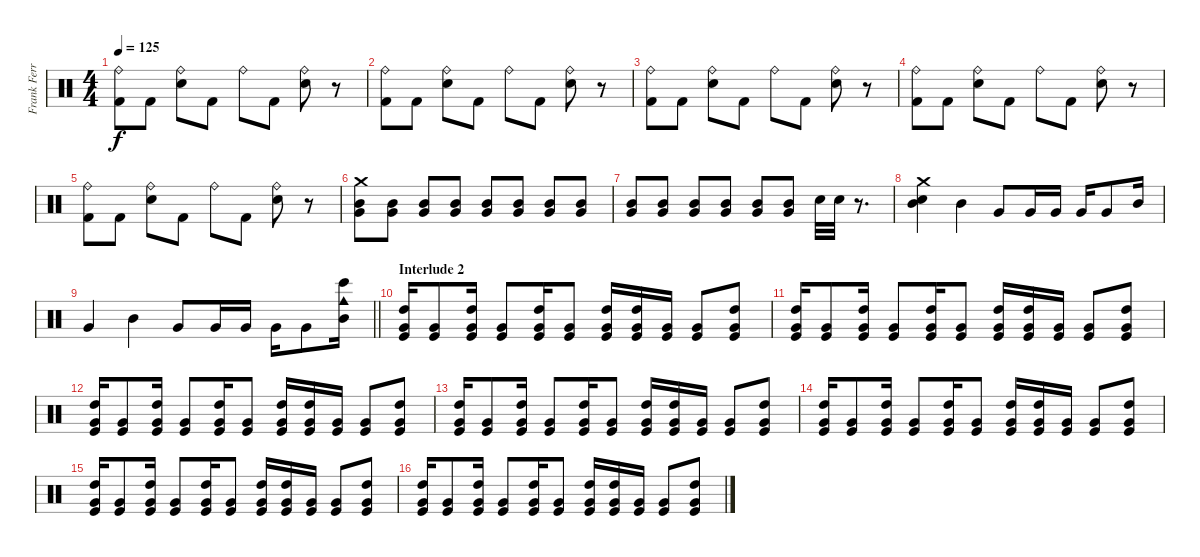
\track ("Frank Ferrer" "Frank Ferr") {instrument percussion}
\staff {score}
\articulation defaults
\ts (4 4)
\tempo 125
\clef neutral
\ks c
("Kick (hit) 2" "Ride (bell)").8{dy f} "Kick (hit) 2".8 ("Electric Snare (hit)" "Ride (bell)").8 "Kick (hit) 2".8 "Ride (bell)".8 "Kick (hit) 2".8 ("Electric Snare (hit)" "Ride (bell)").8 r.8 |
("Kick (hit) 2" "Ride (bell)").8 "Kick (hit) 2".8 ("Electric Snare (hit)" "Ride (bell)").8 "Kick (hit) 2".8 "Ride (bell)".8 "Kick (hit) 2".8 ("Electric Snare (hit)" "Ride (bell)").8 r.8 |
("Kick (hit) 2" "Ride (bell)").8 "Kick (hit) 2".8 ("Electric Snare (hit)" "Ride (bell)").8 "Kick (hit) 2".8 "Ride (bell)".8 "Kick (hit) 2".8 ("Electric Snare (hit)" "Ride (bell)").8 r.8 |
("Kick (hit) 2" "Ride (bell)").8 "Kick (hit) 2".8 ("Electric Snare (hit)" "Ride (bell)").8 "Kick (hit) 2".8 "Ride (bell)".8 "Kick (hit) 2".8 ("Electric Snare (hit)" "Ride (bell)").8 r.8 |
("Kick (hit) 2" "Ride (bell)").8 "Kick (hit) 2".8 ("Electric Snare (hit)" "Ride (bell)").8 "Kick (hit) 2".8 "Ride (bell)".8 "Kick (hit) 2".8 ("Electric Snare (hit)" "Ride (bell)").8 r.8 |
("Crash medium (hit)" "Very Low Tom (hit)" "Mid Tom (hit)").8 ("Very Low Tom (hit)" "Mid Tom (hit)").8 ("Very Low Tom (hit)" "Mid Tom (hit)").8 ("Very Low Tom (hit)" "Mid Tom (hit)").8 ("Very Low Tom (hit)" "Mid Tom (hit)").8 ("Very Low Tom (hit)" "Mid Tom (hit)").8 ("Very Low Tom (hit)" "Mid Tom (hit)").8 ("Very Low Tom (hit)" "Mid Tom (hit)").8 |
("Very Low Tom (hit)" "Mid Tom (hit)").8 ("Very Low Tom (hit)" "Mid Tom (hit)").8 ("Very Low Tom (hit)" "Mid Tom (hit)").8 ("Very Low Tom (hit)" "Mid Tom (hit)").8 ("Very Low Tom (hit)" "Mid Tom (hit)").8 ("Very Low Tom (hit)" "Mid Tom (hit)").8 "Electric Snare (hit)".32 "Electric Snare (hit)".32 r.8{d} |
("Crash medium (hit)" "Electric Snare (hit)" "Mid Tom (hit)").4 "Mid Tom (hit)".4 "Very Low Tom (hit)".8 "Very Low Tom (hit)".16 "Very Low Tom (hit)".16 "Very Low Tom (hit)".16 "Very Low Tom (hit)".8 "Mid Tom (hit)".16 |
\barLineRight lightlight "Very Low Tom (hit)".4 "Mid Tom (hit)".4 "Very Low Tom (hit)".8 "Very Low Tom (hit)".16 "Very Low Tom (hit)".16 "Very Low Tom (hit)".16 "Very Low Tom (hit)".8
("Cowbell medium (hit)" "Bongo High (hit)" "Mid Tom (hit)").16 |
\section ("" "Interlude 2")
("Kick (hit)" "Very Low Tom (hit)" "High Tom (hit)").16 ("Kick (hit)" "Very Low Tom (hit)").8 ("Kick (hit)" "Very Low Tom (hit)" "High Tom (hit)").16 ("Kick (hit)" "Very Low Tom (hit)").8 ("Kick (hit)" "Very Low Tom (hit)" "High Tom (hit)").16 ("Kick (hit)" "Very Low Tom (hit)").8 ("Kick (hit)" "Very Low Tom (hit)" "High Tom (hit)").16 ("Kick (hit)" "Very Low Tom (hit)" "High Tom (hit)").16 ("Kick (hit)" "Very Low Tom (hit)").16 ("Kick (hit)" "Very Low Tom (hit)").8 ("Kick (hit)" "Very Low Tom (hit)" "High Tom (hit)").8 |
("Kick (hit)" "Very Low Tom (hit)" "High Tom (hit)").16 ("Kick (hit)" "Very Low Tom (hit)").8 ("Kick (hit)" "Very Low Tom (hit)" "High Tom (hit)").16 ("Kick (hit)" "Very Low Tom (hit)").8 ("Kick (hit)" "Very Low Tom (hit)" "High Tom (hit)").16 ("Kick (hit)" "Very Low Tom (hit)").8 ("Kick (hit)" "Very Low Tom (hit)" "High Tom (hit)").16 ("Kick (hit)" "Very Low Tom (hit)" "High Tom (hit)").16 ("Kick (hit)" "Very Low Tom (hit)").16 ("Kick (hit)" "Very Low Tom (hit)").8 ("Kick (hit)" "Very Low Tom (hit)" "High Tom (hit)").8 |
("Kick (hit)" "Very Low Tom (hit)" "High Tom (hit)").16 ("Kick (hit)" "Very Low Tom (hit)").8 ("Kick (hit)" "Very Low Tom (hit)" "High Tom (hit)").16 ("Kick (hit)" "Very Low Tom (hit)").8 ("Kick (hit)" "Very Low Tom (hit)" "High Tom (hit)").16 ("Kick (hit)" "Very Low Tom (hit)").8 ("Kick (hit)" "Very Low Tom (hit)" "High Tom (hit)").16 ("Kick (hit)" "Very Low Tom (hit)" "High Tom (hit)").16 ("Kick (hit)" "Very Low Tom (hit)").16 ("Kick (hit)" "Very Low Tom (hit)").8 ("Kick (hit)" "Very Low Tom (hit)" "High Tom (hit)").8 |
("Kick (hit)" "Very Low Tom (hit)" "High Tom (hit)").16 ("Kick (hit)" "Very Low Tom (hit)").8 ("Kick (hit)" "Very Low Tom (hit)" "High Tom (hit)").16 ("Kick (hit)" "Very Low Tom (hit)").8 ("Kick (hit)" "Very Low Tom (hit)" "High Tom (hit)").16 ("Kick (hit)" "Very Low Tom (hit)").8 ("Kick (hit)" "Very Low Tom (hit)" "High Tom (hit)").16 ("Kick (hit)" "Very Low Tom (hit)" "High Tom (hit)").16 ("Kick (hit)" "Very Low Tom (hit)").16 ("Kick (hit)" "Very Low Tom (hit)").8 ("Kick (hit)" "Very Low Tom (hit)" "High Tom (hit)").8 |
("Kick (hit)" "Very Low Tom (hit)" "High Tom (hit)").16 ("Kick (hit)" "Very Low Tom (hit)").8 ("Kick (hit)" "Very Low Tom (hit)" "High Tom (hit)").16 ("Kick (hit)" "Very Low Tom (hit)").8 ("Kick (hit)" "Very Low Tom (hit)" "High Tom (hit)").16 ("Kick (hit)" "Very Low Tom (hit)").8 ("Kick (hit)" "Very Low Tom (hit)" "High Tom (hit)").16 ("Kick (hit)" "Very Low Tom (hit)" "High Tom (hit)").16 ("Kick (hit)" "Very Low Tom (hit)").16 ("Kick (hit)" "Very Low Tom (hit)").8 ("Kick (hit)" "Very Low Tom (hit)" "High Tom (hit)").8 |
("Kick (hit)" "Very Low Tom (hit)" "High Tom (hit)").16 ("Kick (hit)" "Very Low Tom (hit)").8 ("Kick (hit)" "Very Low Tom (hit)" "High Tom (hit)").16 ("Kick (hit)" "Very Low Tom (hit)").8 ("Kick (hit)" "Very Low Tom (hit)" "High Tom (hit)").16 ("Kick (hit)" "Very Low Tom (hit)").8 ("Kick (hit)" "Very Low Tom (hit)" "High Tom (hit)").16 ("Kick (hit)" "Very Low Tom (hit)" "High Tom (hit)").16 ("Kick (hit)" "Very Low Tom (hit)").16 ("Kick (hit)" "Very Low Tom (hit)").8 ("Kick (hit)" "Very Low Tom (hit)" "High Tom (hit)").8 |
("Kick (hit)" "Very Low Tom (hit)" "High Tom (hit)").16 ("Kick (hit)" "Very Low Tom (hit)").8 ("Kick (hit)" "Very Low Tom (hit)" "High Tom (hit)").16 ("Kick (hit)" "Very Low Tom (hit)").8 ("Kick (hit)" "Very Low Tom (hit)" "High Tom (hit)").16 ("Kick (hit)" "Very Low Tom (hit)").8 ("Kick (hit)" "Very Low Tom (hit)" "High Tom (hit)").16 ("Kick (hit)" "Very Low Tom (hit)" "High Tom (hit)").16 ("Kick (hit)" "Very Low Tom (hit)").16 ("Kick (hit)" "Very Low Tom (hit)").8 ("Kick (hit)" "Very Low Tom (hit)" "High Tom (hit)").8
